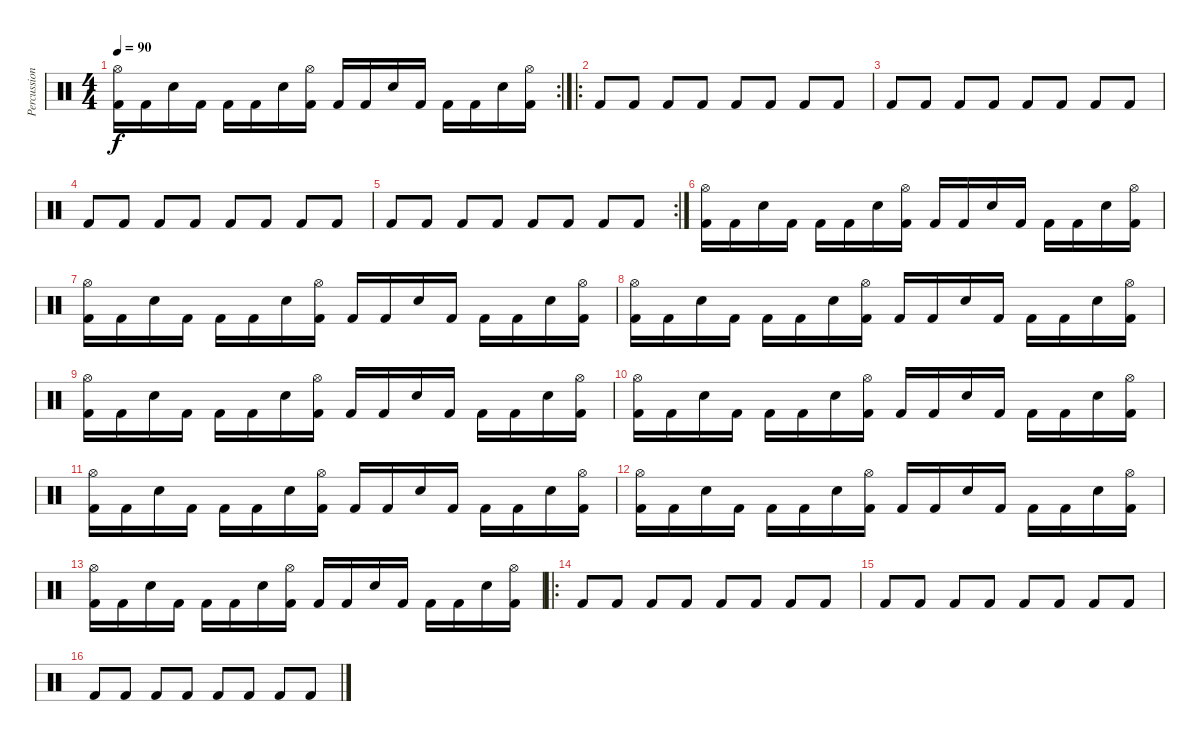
\track ("Percussion" "Percussion") {instrument percussion}
\staff {score}
\articulation defaults
\rc 2
\ts (4 4)
\tempo 90
\clef neutral
\ks c
("Hi-Hat (open)" "Kick (hit) 2").16{dy f} "Kick (hit) 2".16 "Snare (hit) 2".16 "Kick (hit) 2".16 "Kick (hit) 2".16 "Kick (hit) 2".16 "Snare (hit) 2".16 ("Hi-Hat (open)" "Kick (hit) 2").16 "Kick (hit) 2".16 "Kick (hit) 2".16 "Snare (hit) 2".16 "Kick (hit) 2".16 "Kick (hit) 2".16 "Kick (hit) 2".16 "Snare (hit) 2".16 ("Hi-Hat (open)" "Kick (hit) 2").16 |
\ro "Kick (hit) 2".8 "Kick (hit) 2".8 "Kick (hit) 2".8 "Kick (hit) 2".8 "Kick (hit) 2".8 "Kick (hit) 2".8 "Kick (hit) 2".8 "Kick (hit) 2".8
|
"Kick (hit) 2".8 "Kick (hit) 2".8 "Kick (hit) 2".8 "Kick (hit) 2".8 "Kick (hit) 2".8 "Kick (hit) 2".8 "Kick (hit) 2".8 "Kick (hit) 2".8 |
"Kick (hit) 2".8 "Kick (hit) 2".8 "Kick (hit) 2".8 "Kick (hit) 2".8 "Kick (hit) 2".8 "Kick (hit) 2".8 "Kick (hit) 2".8 "Kick (hit) 2".8 |
\rc 2 "Kick (hit) 2".8 "Kick (hit) 2".8 "Kick (hit) 2".8 "Kick (hit) 2".8 "Kick (hit) 2".8 "Kick (hit) 2".8 "Kick (hit) 2".8 "Kick (hit) 2".8
|
("Hi-Hat (open)" "Kick (hit) 2").16 "Kick (hit) 2".16 "Snare (hit) 2".16 "Kick (hit) 2".16 "Kick (hit) 2".16 "Kick (hit) 2".16 "Snare (hit) 2".16 ("Hi-Hat (open)" "Kick (hit) 2").16 "Kick (hit) 2".16 "Kick (hit) 2".16 "Snare (hit) 2".16 "Kick (hit) 2".16 "Kick (hit) 2".16 "Kick (hit) 2".16 "Snare (hit) 2".16 ("Hi-Hat (open)" "Kick (hit) 2").16 |
("Hi-Hat (open)" "Kick (hit) 2").16 "Kick (hit) 2".16 "Snare (hit) 2".16 "Kick (hit) 2".16 "Kick (hit) 2".16 "Kick (hit) 2".16 "Snare (hit) 2".16 ("Hi-Hat (open)" "Kick (hit) 2").16 "Kick (hit) 2".16 "Kick (hit) 2".16 "Snare (hit) 2".16 "Kick (hit) 2".16 "Kick (hit) 2".16 "Kick (hit) 2".16 "Snare (hit) 2".16 ("Hi-Hat (open)" "Kick (hit) 2").16 |
("Hi-Hat (open)" "Kick (hit) 2").16 "Kick (hit) 2".16 "Snare (hit) 2".16 "Kick (hit) 2".16 "Kick (hit) 2".16 "Kick (hit) 2".16 "Snare (hit) 2".16 ("Hi-Hat (open)" "Kick (hit) 2").16 "Kick (hit) 2".16 "Kick (hit) 2".16 "Snare (hit) 2".16 "Kick (hit) 2".16 "Kick (hit) 2".16 "Kick (hit) 2".16 "Snare (hit) 2".16 ("Hi-Hat (open)" "Kick (hit) 2").16 |
("Hi-Hat (open)" "Kick (hit) 2").16 "Kick (hit) 2".16 "Snare (hit) 2".16 "Kick (hit) 2".16 "Kick (hit) 2".16 "Kick (hit) 2".16 "Snare (hit) 2".16 ("Hi-Hat (open)" "Kick (hit) 2").16 "Kick (hit) 2".16 "Kick (hit) 2".16 "Snare (hit) 2".16 "Kick (hit) 2".16 "Kick (hit) 2".16 "Kick (hit) 2".16 "Snare (hit) 2".16 ("Hi-Hat (open)" "Kick (hit) 2").16 |
("Hi-Hat (open)" "Kick (hit) 2").16 "Kick (hit) 2".16 "Snare (hit) 2".16 "Kick (hit) 2".16 "Kick (hit) 2".16 "Kick (hit) 2".16 "Snare (hit) 2".16 ("Hi-Hat (open)" "Kick (hit) 2").16 "Kick (hit) 2".16 "Kick (hit) 2".16 "Snare (hit) 2".16 "Kick (hit) 2".16 "Kick (hit) 2".16 "Kick (hit) 2".16 "Snare (hit) 2".16 ("Hi-Hat (open)" "Kick (hit) 2").16 |
("Hi-Hat (open)" "Kick (hit) 2").16 "Kick (hit) 2".16 "Snare (hit) 2".16 "Kick (hit) 2".16 "Kick (hit) 2".16 "Kick (hit) 2".16 "Snare (hit) 2".16 ("Hi-Hat (open)" "Kick (hit) 2").16 "Kick (hit) 2".16 "Kick (hit) 2".16 "Snare (hit) 2".16 "Kick (hit) 2".16 "Kick (hit) 2".16 "Kick (hit) 2".16 "Snare (hit) 2".16 ("Hi-Hat (open)" "Kick (hit) 2").16 |
("Hi-Hat (open)" "Kick (hit) 2").16 "Kick (hit) 2".16 "Snare (hit) 2".16 "Kick (hit) 2".16 "Kick (hit) 2".16 "Kick (hit) 2".16 "Snare (hit) 2".16 ("Hi-Hat (open)" "Kick (hit) 2").16 "Kick (hit) 2".16 "Kick (hit) 2".16 "Snare (hit) 2".16 "Kick (hit) 2".16 "Kick (hit) 2".16 "Kick (hit) 2".16 "Snare (hit) 2".16 ("Hi-Hat (open)" "Kick (hit) 2").16 |
("Hi-Hat (open)" "Kick (hit) 2").16 "Kick (hit) 2".16 "Snare (hit) 2".16 "Kick (hit) 2".16 "Kick (hit) 2".16 "Kick (hit) 2".16 "Snare (hit) 2".16 ("Hi-Hat (open)" "Kick (hit) 2").16 "Kick (hit) 2".16 "Kick (hit) 2".16 "Snare (hit) 2".16 "Kick (hit) 2".16 "Kick (hit) 2".16 "Kick (hit) 2".16 "Snare (hit) 2".16 ("Hi-Hat (open)" "Kick (hit) 2").16 |
\ro "Kick (hit) 2".8 "Kick (hit) 2".8 "Kick (hit) 2".8 "Kick (hit) 2".8 "Kick (hit) 2".8 "Kick (hit) 2".8 "Kick (hit) 2".8 "Kick (hit) 2".8
|
"Kick (hit) 2".8 "Kick (hit) 2".8 "Kick (hit) 2".8 "Kick (hit) 2".8 "Kick (hit) 2".8 "Kick (hit) 2".8 "Kick (hit) 2".8 "Kick (hit) 2".8 |
"Kick (hit) 2".8 "Kick (hit) 2".8 "Kick (hit) 2".8 "Kick (hit) 2".8 "Kick (hit) 2".8 "Kick (hit) 2".8 "Kick (hit) 2".8 "Kick (hit) 2".8
